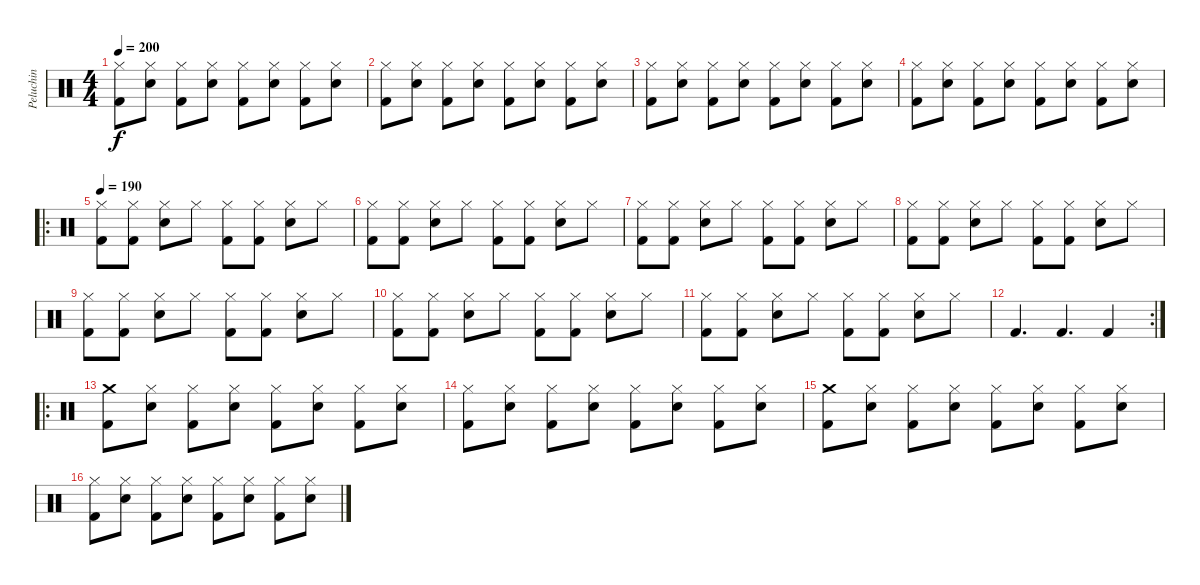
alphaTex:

\track ("Peluchin" "Peluchin") {instrument percussion}
\staff {score}
\articulation defaults
\ts (4 4)
\tempo 200
\clef neutral
\ks c
("Kick (hit) 2" "Hi-Hat (closed)").8{dy f} ("Electric Snare (hit)" "Hi-Hat (closed)").8 ("Kick (hit) 2" "Hi-Hat (closed)").8 ("Electric Snare (hit)" "Hi-Hat (closed)").8 ("Kick (hit) 2" "Hi-Hat (closed)").8 ("Electric Snare (hit)" "Hi-Hat (closed)").8 ("Kick (hit) 2" "Hi-Hat (closed)").8 ("Electric Snare (hit)" "Hi-Hat (closed)").8 |
("Kick (hit) 2" "Hi-Hat (closed)").8 ("Electric Snare (hit)" "Hi-Hat (closed)").8 ("Kick (hit) 2" "Hi-Hat (closed)").8 ("Electric Snare (hit)" "Hi-Hat (closed)").8 ("Kick (hit) 2" "Hi-Hat (closed)").8 ("Electric Snare (hit)" "Hi-Hat (closed)").8 ("Kick (hit) 2" "Hi-Hat (closed)").8 ("Electric Snare (hit)" "Hi-Hat (closed)").8 |
("Kick (hit) 2" "Hi-Hat (closed)").8 ("Electric Snare (hit)" "Hi-Hat (closed)").8 ("Kick (hit) 2" "Hi-Hat (closed)").8 ("Electric Snare (hit)" "Hi-Hat (closed)").8 ("Kick (hit) 2" "Hi-Hat (closed)").8 ("Electric Snare (hit)" "Hi-Hat (closed)").8 ("Kick (hit) 2" "Hi-Hat (closed)").8 ("Electric Snare (hit)" "Hi-Hat (closed)").8 |
("Kick (hit) 2" "Hi-Hat (closed)").8 ("Electric Snare (hit)" "Hi-Hat (closed)").8 ("Kick (hit) 2" "Hi-Hat (closed)").8 ("Electric Snare (hit)" "Hi-Hat (closed)").8 ("Kick (hit) 2" "Hi-Hat (closed)").8 ("Electric Snare (hit)" "Hi-Hat (closed)").8 ("Kick (hit) 2" "Hi-Hat (closed)").8 ("Electric Snare (hit)" "Hi-Hat (closed)").8 |
\ro
\tempo 190
("Kick (hit) 2" "Hi-Hat (closed)").8 ("Kick (hit) 2" "Hi-Hat (closed)").8 ("Electric Snare (hit)" "Hi-Hat (closed)").8 "Hi-Hat (closed)".8 ("Kick (hit) 2" "Hi-Hat (closed)").8 ("Kick (hit) 2" "Hi-Hat (closed)").8 ("Electric Snare (hit)" "Hi-Hat (closed)").8 "Hi-Hat (closed)".8 |
("Kick (hit) 2" "Hi-Hat (closed)").8 ("Kick (hit) 2" "Hi-Hat (closed)").8 ("Electric Snare (hit)" "Hi-Hat (closed)").8 "Hi-Hat (closed)".8 ("Kick (hit) 2" "Hi-Hat (closed)").8 ("Kick (hit) 2" "Hi-Hat (closed)").8 ("Electric Snare (hit)" "Hi-Hat (closed)").8 "Hi-Hat (closed)".8 |
("Kick (hit) 2" "Hi-Hat (closed)").8 ("Kick (hit) 2" "Hi-Hat (closed)").8 ("Electric Snare (hit)" "Hi-Hat (closed)").8 "Hi-Hat (closed)".8 ("Kick (hit) 2" "Hi-Hat (closed)").8 ("Kick (hit) 2" "Hi-Hat (closed)").8 ("Electric Snare (hit)" "Hi-Hat (closed)").8 "Hi-Hat (closed)".8 |
("Kick (hit) 2" "Hi-Hat (closed)").8 ("Kick (hit) 2" "Hi-Hat (closed)").8 ("Electric Snare (hit)" "Hi-Hat (closed)").8 "Hi-Hat (closed)".8 ("Kick (hit) 2" "Hi-Hat (closed)").8 ("Kick (hit) 2" "Hi-Hat (closed)").8 ("Electric Snare (hit)" "Hi-Hat (closed)").8 "Hi-Hat (closed)".8 |
("Kick (hit) 2" "Hi-Hat (closed)").8 ("Kick (hit) 2" "Hi-Hat (closed)").8 ("Electric Snare (hit)" "Hi-Hat (closed)").8 "Hi-Hat (closed)".8 ("Kick (hit) 2" "Hi-Hat (closed)").8 ("Kick (hit) 2" "Hi-Hat (closed)").8 ("Electric Snare (hit)" "Hi-Hat (closed)").8 "Hi-Hat (closed)".8 |
("Kick (hit) 2" "Hi-Hat (closed)").8 ("Kick (hit) 2" "Hi-Hat (closed)").8 ("Electric Snare (hit)" "Hi-Hat (closed)").8 "Hi-Hat (closed)".8 ("Kick (hit) 2" "Hi-Hat (closed)").8 ("Kick (hit) 2" "Hi-Hat (closed)").8 ("Electric Snare (hit)" "Hi-Hat (closed)").8 "Hi-Hat (closed)".8 |
("Kick (hit) 2" "Hi-Hat (closed)").8 ("Kick (hit) 2" "Hi-Hat (closed)").8 ("Electric Snare (hit)" "Hi-Hat (closed)").8 "Hi-Hat (closed)".8 ("Kick (hit) 2" "Hi-Hat (closed)").8 ("Kick (hit) 2" "Hi-Hat (closed)").8 ("Electric Snare (hit)" "Hi-Hat (closed)").8 "Hi-Hat (closed)".8 |
\rc 2 "Kick (hit) 2".4{d} "Kick (hit) 2".4{d} "Kick (hit) 2".4
|
\ro
("Kick (hit) 2" "Crash medium (hit)").8 ("Electric Snare (hit)" "Hi-Hat (closed)").8 ("Kick (hit) 2" "Hi-Hat (closed)").8 ("Electric Snare (hit)" "Hi-Hat (closed)").8 ("Kick (hit) 2" "Hi-Hat (closed)").8 ("Electric Snare (hit)" "Hi-Hat (closed)").8 ("Kick (hit) 2" "Hi-Hat (closed)").8 ("Electric Snare (hit)" "Hi-Hat (closed)").8 |
("Kick (hit) 2" "Hi-Hat (closed)").8 ("Electric Snare (hit)" "Hi-Hat (closed)").8 ("Kick (hit) 2" "Hi-Hat (closed)").8 ("Electric Snare (hit)" "Hi-Hat (closed)").8 ("Kick (hit) 2" "Hi-Hat (closed)").8 ("Electric Snare (hit)" "Hi-Hat (closed)").8 ("Kick (hit) 2" "Hi-Hat (closed)").8 ("Electric Snare (hit)" "Hi-Hat (closed)").8 |
("Kick (hit) 2" "Crash medium (hit)").8 ("Electric Snare (hit)" "Hi-Hat (closed)").8 ("Kick (hit) 2" "Hi-Hat (closed)").8 ("Electric Snare (hit)" "Hi-Hat (closed)").8 ("Kick (hit) 2" "Hi-Hat (closed)").8 ("Electric Snare (hit)" "Hi-Hat (closed)").8 ("Kick (hit) 2" "Hi-Hat (closed)").8 ("Electric Snare (hit)" "Hi-Hat (closed)").8 |
("Kick (hit) 2" "Hi-Hat (closed)").8 ("Electric Snare (hit)" "Hi-Hat (closed)").8 ("Kick (hit) 2" "Hi-Hat (closed)").8 ("Electric Snare (hit)" "Hi-Hat (closed)").8 ("Kick (hit) 2" "Hi-Hat (closed)").8 ("Electric Snare (hit)" "Hi-Hat (closed)").8 ("Kick (hit) 2" "Hi-Hat (closed)").8 ("Electric Snare (hit)" "Hi-Hat (closed)").8
